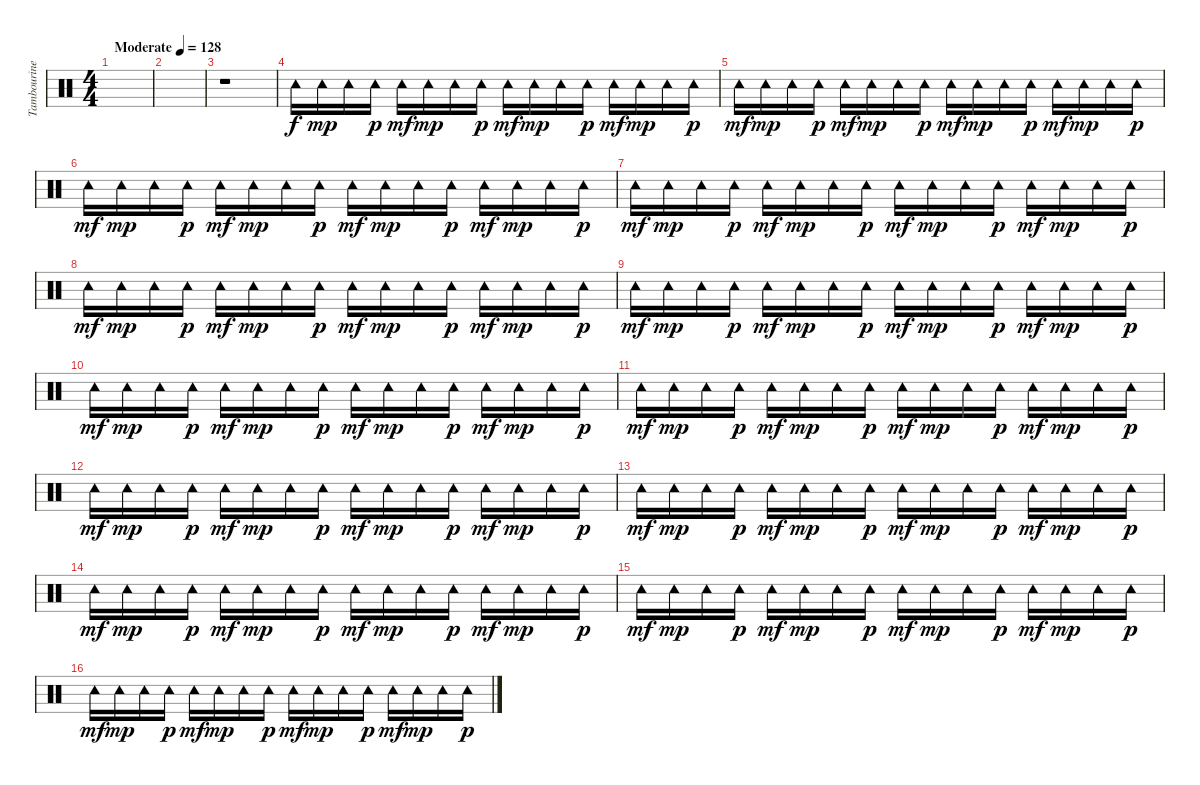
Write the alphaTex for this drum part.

\track ("Tambourine" "Tambourine") {instrument percussion}
\staff {score}
\articulation defaults
\ts (4 4)
\tempo (128 "Moderate")
\clef neutral
\ks c
|
|
r.1{volume 5 balance 13} |
"Tambourine (hit)".16 "Tambourine (hit)".16{dy mp} "Tambourine (hit)".16 "Tambourine (hit)".16{dy p} "Tambourine (hit)".16{dy mf} "Tambourine (hit)".16{dy mp} "Tambourine (hit)".16 "Tambourine (hit)".16{dy p} "Tambourine (hit)".16{dy mf} "Tambourine (hit)".16{dy mp} "Tambourine (hit)".16 "Tambourine (hit)".16{dy p} "Tambourine (hit)".16{dy mf} "Tambourine (hit)".16{dy mp} "Tambourine (hit)".16 "Tambourine (hit)".16{dy p} |
"Tambourine (hit)".16{dy mf} "Tambourine (hit)".16{dy mp} "Tambourine (hit)".16 "Tambourine (hit)".16{dy p} "Tambourine (hit)".16{dy mf} "Tambourine (hit)".16{dy mp} "Tambourine (hit)".16 "Tambourine (hit)".16{dy p} "Tambourine (hit)".16{dy mf} "Tambourine (hit)".16{dy mp} "Tambourine (hit)".16 "Tambourine (hit)".16{dy p} "Tambourine (hit)".16{dy mf} "Tambourine (hit)".16{dy mp} "Tambourine (hit)".16 "Tambourine (hit)".16{dy p} |
"Tambourine (hit)".16{dy mf} "Tambourine (hit)".16{dy mp} "Tambourine (hit)".16 "Tambourine (hit)".16{dy p} "Tambourine (hit)".16{dy mf} "Tambourine (hit)".16{dy mp} "Tambourine (hit)".16 "Tambourine (hit)".16{dy p} "Tambourine (hit)".16{dy mf} "Tambourine (hit)".16{dy mp} "Tambourine (hit)".16 "Tambourine (hit)".16{dy p} "Tambourine (hit)".16{dy mf} "Tambourine (hit)".16{dy mp} "Tambourine (hit)".16 "Tambourine (hit)".16{dy p} |
"Tambourine (hit)".16{dy mf} "Tambourine (hit)".16{dy mp} "Tambourine (hit)".16 "Tambourine (hit)".16{dy p} "Tambourine (hit)".16{dy mf} "Tambourine (hit)".16{dy mp} "Tambourine (hit)".16 "Tambourine (hit)".16{dy p} "Tambourine (hit)".16{dy mf} "Tambourine (hit)".16{dy mp} "Tambourine (hit)".16 "Tambourine (hit)".16{dy p} "Tambourine (hit)".16{dy mf} "Tambourine (hit)".16{dy mp} "Tambourine (hit)".16 "Tambourine (hit)".16{dy p} |
"Tambourine (hit)".16{dy mf} "Tambourine (hit)".16{dy mp} "Tambourine (hit)".16 "Tambourine (hit)".16{dy p} "Tambourine (hit)".16{dy mf} "Tambourine (hit)".16{dy mp} "Tambourine (hit)".16 "Tambourine (hit)".16{dy p} "Tambourine (hit)".16{dy mf} "Tambourine (hit)".16{dy mp} "Tambourine (hit)".16 "Tambourine (hit)".16{dy p} "Tambourine (hit)".16{dy mf} "Tambourine (hit)".16{dy mp} "Tambourine (hit)".16 "Tambourine (hit)".16{dy p} |
"Tambourine (hit)".16{dy mf} "Tambourine (hit)".16{dy mp} "Tambourine (hit)".16 "Tambourine (hit)".16{dy p} "Tambourine (hit)".16{dy mf} "Tambourine (hit)".16{dy mp} "Tambourine (hit)".16 "Tambourine (hit)".16{dy p} "Tambourine (hit)".16{dy mf} "Tambourine (hit)".16{dy mp} "Tambourine (hit)".16 "Tambourine (hit)".16{dy p} "Tambourine (hit)".16{dy mf} "Tambourine (hit)".16{dy mp} "Tambourine (hit)".16 "Tambourine (hit)".16{dy p} |
"Tambourine (hit)".16{dy mf} "Tambourine (hit)".16{dy mp} "Tambourine (hit)".16 "Tambourine (hit)".16{dy p} "Tambourine (hit)".16{dy mf} "Tambourine (hit)".16{dy mp} "Tambourine (hit)".16 "Tambourine (hit)".16{dy p} "Tambourine (hit)".16{dy mf} "Tambourine (hit)".16{dy mp} "Tambourine (hit)".16 "Tambourine (hit)".16{dy p} "Tambourine (hit)".16{dy mf} "Tambourine (hit)".16{dy mp} "Tambourine (hit)".16 "Tambourine (hit)".16{dy p} |
"Tambourine (hit)".16{dy mf} "Tambourine (hit)".16{dy mp} "Tambourine (hit)".16 "Tambourine (hit)".16{dy p} "Tambourine (hit)".16{dy mf} "Tambourine (hit)".16{dy mp} "Tambourine (hit)".16 "Tambourine (hit)".16{dy p} "Tambourine (hit)".16{dy mf} "Tambourine (hit)".16{dy mp} "Tambourine (hit)".16 "Tambourine (hit)".16{dy p} "Tambourine (hit)".16{dy mf} "Tambourine (hit)".16{dy mp} "Tambourine (hit)".16 "Tambourine (hit)".16{dy p} |
"Tambourine (hit)".16{dy mf} "Tambourine (hit)".16{dy mp} "Tambourine (hit)".16 "Tambourine (hit)".16{dy p} "Tambourine (hit)".16{dy mf} "Tambourine (hit)".16{dy mp} "Tambourine (hit)".16 "Tambourine (hit)".16{dy p} "Tambourine (hit)".16{dy mf} "Tambourine (hit)".16{dy mp} "Tambourine (hit)".16 "Tambourine (hit)".16{dy p} "Tambourine (hit)".16{dy mf} "Tambourine (hit)".16{dy mp} "Tambourine (hit)".16 "Tambourine (hit)".16{dy p} |
"Tambourine (hit)".16{dy mf} "Tambourine (hit)".16{dy mp} "Tambourine (hit)".16 "Tambourine (hit)".16{dy p} "Tambourine (hit)".16{dy mf} "Tambourine (hit)".16{dy mp} "Tambourine (hit)".16 "Tambourine (hit)".16{dy p} "Tambourine (hit)".16{dy mf} "Tambourine (hit)".16{dy mp} "Tambourine (hit)".16 "Tambourine (hit)".16{dy p} "Tambourine (hit)".16{dy mf} "Tambourine (hit)".16{dy mp} "Tambourine (hit)".16 "Tambourine (hit)".16{dy p} |
"Tambourine (hit)".16{dy mf} "Tambourine (hit)".16{dy mp} "Tambourine (hit)".16 "Tambourine (hit)".16{dy p} "Tambourine (hit)".16{dy mf} "Tambourine (hit)".16{dy mp} "Tambourine (hit)".16 "Tambourine (hit)".16{dy p} "Tambourine (hit)".16{dy mf} "Tambourine (hit)".16{dy mp} "Tambourine (hit)".16 "Tambourine (hit)".16{dy p} "Tambourine (hit)".16{dy mf} "Tambourine (hit)".16{dy mp} "Tambourine (hit)".16 "Tambourine (hit)".16{dy p} |
"Tambourine (hit)".16{dy mf} "Tambourine (hit)".16{dy mp} "Tambourine (hit)".16 "Tambourine (hit)".16{dy p} "Tambourine (hit)".16{dy mf} "Tambourine (hit)".16{dy mp} "Tambourine (hit)".16 "Tambourine (hit)".16{dy p} "Tambourine (hit)".16{dy mf} "Tambourine (hit)".16{dy mp} "Tambourine (hit)".16 "Tambourine (hit)".16{dy p} "Tambourine (hit)".16{dy mf} "Tambourine (hit)".16{dy mp} "Tambourine (hit)".16 "Tambourine (hit)".16{dy p} |
"Tambourine (hit)".16{dy mf} "Tambourine (hit)".16{dy mp} "Tambourine (hit)".16 "Tambourine (hit)".16{dy p} "Tambourine (hit)".16{dy mf} "Tambourine (hit)".16{dy mp} "Tambourine (hit)".16 "Tambourine (hit)".16{dy p} "Tambourine (hit)".16{dy mf} "Tambourine (hit)".16{dy mp} "Tambourine (hit)".16 "Tambourine (hit)".16{dy p} "Tambourine (hit)".16{dy mf} "Tambourine (hit)".16{dy mp} "Tambourine (hit)".16 "Tambourine (hit)".16{dy p}
